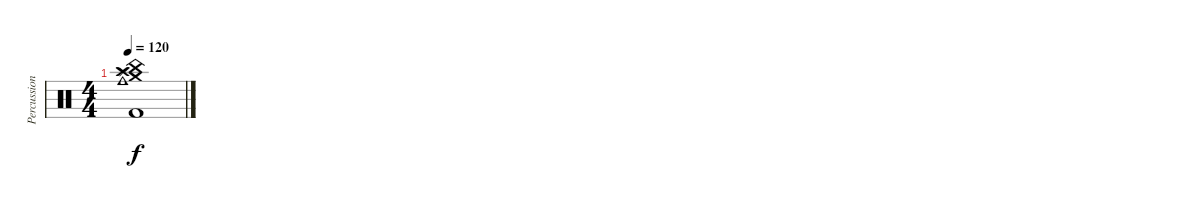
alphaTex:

\track ("Percussion" "Percussion") {instrument percussion}
\staff {score}
\articulation defaults
\ts (4 4)
\tempo 120
\clef neutral
\ks c
("Kick (hit) 2" "Cowbell medium (hit)" "China (hit)" "Crash medium (hit)" "Crash high (hit)" "Splash (hit)").1{dy f}
